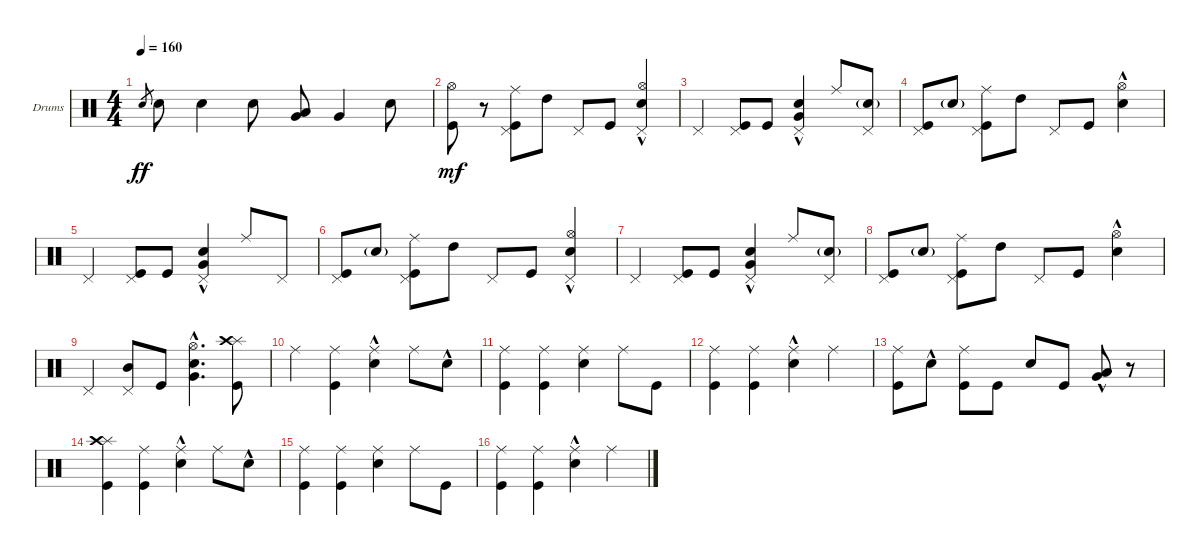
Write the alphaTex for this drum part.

\defaultSystemsLayout 4
\bracketExtendMode groupsimilarinstruments
\firstSystemTrackNameOrientation horizontal
\otherSystemsTrackNameOrientation horizontal
\track ("Drumkit" "Drums") {instrument percussion}
\staff {score}
\articulation defaults
\ts (4 4)
\tempo 160
\clef neutral
\scale
0.333333
\ks c "Snare (hit) 2".8{gr dy ff} "Snare (hit) 2".8 "Snare (hit) 2".4 "Snare (hit) 2".8
("Very Low Tom (hit)" "Low Tom (hit)").8 "Very Low Tom (hit)".4 "Snare (hit) 2".8 |
\scale
0.333333 ("Kick (hit)" "Hi-Hat (open)").8{dy mf} r.8 ("Kick (hit)" "Pedal Hi-Hat (hit)" "Ride (middle)").8 "High Tom (hit)".8 "Pedal Hi-Hat (hit)".8 "Kick (hit)".8 ("Snare (hit) 2"{hac} "Pedal Hi-Hat (hit)" "Hi-Hat (open)").4 |
\scale
0.333333 "Pedal Hi-Hat (hit)".4 ("Pedal Hi-Hat (hit)" "Kick (hit)").8 "Kick (hit)".8 ("Pedal Hi-Hat (hit)" "Snare (hit) 2"{hac} "Very Low Tom (hit)"{hac}).4 "Ride (middle)".8 ("Pedal Hi-Hat (hit)" "Snare (hit) 2"{g}).8 |
\scale
0.333333 ("Kick (hit)" "Pedal Hi-Hat (hit)").8 "Snare (hit) 2"{g}.8 ("Kick (hit)" "Pedal Hi-Hat (hit)" "Ride (middle)").8 "High Tom (hit)".8 "Pedal Hi-Hat (hit)".8 "Kick (hit)".8 ("Snare (hit) 2"{hac} "Hi-Hat (open)").4 |
\scale
0.333333 "Pedal Hi-Hat (hit)".4 ("Pedal Hi-Hat (hit)" "Kick (hit)").8 "Kick (hit)".8 ("Pedal Hi-Hat (hit)" "Very Low Tom (hit)"{hac} "Snare (hit) 2"{hac}).4 "Ride (middle)".8 "Pedal Hi-Hat (hit)".8 |
\scale
0.333333 ("Kick (hit)" "Pedal Hi-Hat (hit)").8 "Snare (hit) 2"{g}.8 ("Kick (hit)" "Pedal Hi-Hat (hit)" "Ride (middle)").8 "High Tom (hit)".8 "Pedal Hi-Hat (hit)".8 "Kick (hit)".8 ("Snare (hit) 2"{hac} "Pedal Hi-Hat (hit)" "Hi-Hat (open)").4 |
\scale
0.333333 "Pedal Hi-Hat (hit)".4 ("Pedal Hi-Hat (hit)" "Kick (hit)").8 "Kick (hit)".8 ("Pedal Hi-Hat (hit)" "Very Low Tom (hit)"{hac} "Snare (hit) 2"{hac}).4 "Ride (middle)".8 ("Pedal Hi-Hat (hit)" "Snare (hit) 2"{g}).8 |
\scale
0.333333 ("Kick (hit)" "Pedal Hi-Hat (hit)").8 "Snare (hit) 2"{g}.8 ("Kick (hit)" "Pedal Hi-Hat (hit)" "Ride (middle)").8 "High Tom (hit)".8 "Pedal Hi-Hat (hit)".8 "Kick (hit)".8 ("Snare (hit) 2"{hac} "Hi-Hat (open)").4 |
\scale
0.333333 "Pedal Hi-Hat (hit)".4 ("Pedal Hi-Hat (hit)" "Mid Tom (hit)").8 "Kick (hit)".8 ("Very Low Tom (hit)"{hac} "Snare (hit) 2"{hac} "Hi-Hat (open)").4{d} ("Kick (hit)" "Splash (hit)" "Crash high (hit)").8 |
\scale
0.333333 "Ride (middle)".4 ("Kick (hit)" "Ride (middle)").4 ("Snare (hit) 2"{hac} "Ride (middle)").4 "Ride (middle)".8 "Snare (hit) 2"{hac}.8 |
\scale
0.333333 ("Kick (hit)" "Ride (middle)").4 ("Kick (hit)" "Ride (middle)").4 ("Snare (hit) 2" "Ride (middle)").4 "Ride (middle)".8 "Kick (hit)".8 |
\scale
0.333333 ("Kick (hit)" "Ride (middle)").4 ("Kick (hit)" "Ride (middle)").4 ("Snare (hit) 2"{hac} "Ride (middle)").4 "Ride (middle)".4 |
\scale
0.333333 ("Kick (hit)" "Ride (middle)").8 "Snare (hit) 2"{hac}.8 ("Kick (hit)" "Ride (middle)").8 "Kick (hit)".8 "Snare (hit) 2".8 "Kick (hit)".8 ("Very Low Tom (hit)"{hac} "Low Tom (hit)"{hac}).8 r.8 |
\scale
0.333333 ("Kick (hit)" "Splash (hit)" "Crash high (hit)").4 ("Kick (hit)" "Ride (middle)").4 ("Snare (hit) 2"{hac} "Ride (middle)").4 "Ride (middle)".8 "Snare (hit) 2"{hac}.8 |
\scale
0.333333 ("Kick (hit)" "Ride (middle)").4 ("Kick (hit)" "Ride (middle)").4 ("Snare (hit) 2" "Ride (middle)").4 "Ride (middle)".8 "Kick (hit)".8 |
\scale
0.333333 ("Kick (hit)" "Ride (middle)").4 ("Kick (hit)" "Ride (middle)").4 ("Snare (hit) 2"{hac} "Ride (middle)").4 "Ride (middle)".4
